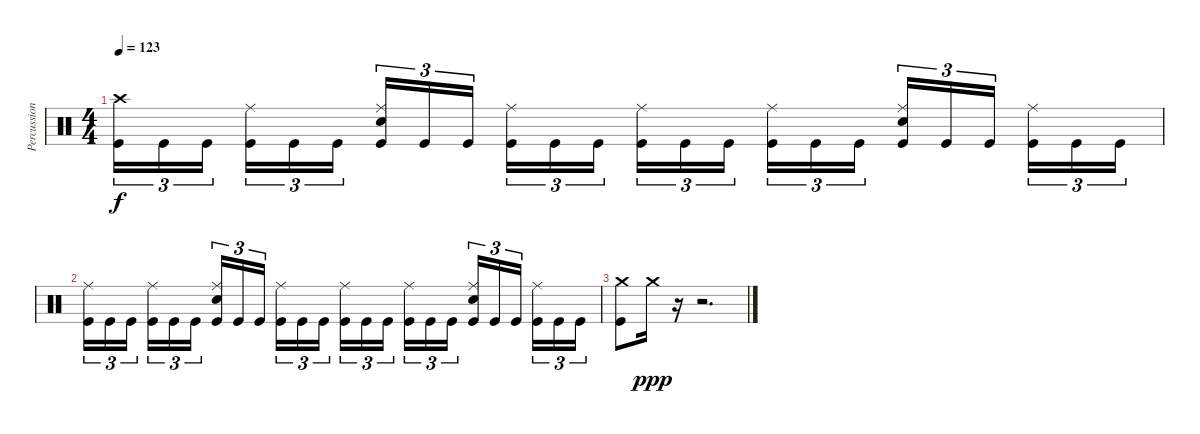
\track ("Percussions" "Percussion") {instrument percussion}
\staff {score}
\articulation defaults
\ts (4 4)
\tempo 123
\clef neutral
\ks c
("Crash high (hit)" "Kick (hit)").16{tu (3 2) dy f} "Kick (hit)".16{tu (3 2)} "Kick (hit)".16{tu (3 2)} ("Ride (middle)" "Kick (hit)").16{tu (3 2)} "Kick (hit)".16{tu (3 2)} "Kick (hit)".16{tu (3 2)} ("Ride (middle)" "Electric Snare (hit)" "Kick (hit)").16{tu (3 2)} "Kick (hit)".16{tu (3 2)} "Kick (hit)".16{tu (3 2)} ("Ride (middle)" "Kick (hit)").16{tu (3 2)} "Kick (hit)".16{tu (3 2)} "Kick (hit)".16{tu (3 2)} ("Ride (middle)" "Kick (hit)").16{tu (3 2)} "Kick (hit)".16{tu (3 2)} "Kick (hit)".16{tu (3 2)} ("Ride (middle)" "Kick (hit)").16{tu (3 2)} "Kick (hit)".16{tu (3 2)} "Kick (hit)".16{tu (3 2)} ("Ride (middle)" "Electric Snare (hit)" "Kick (hit)").16{tu (3 2)} "Kick (hit)".16{tu (3 2)} "Kick (hit)".16{tu (3 2)} ("Ride (middle)" "Kick (hit)").16{tu (3 2)} "Kick (hit)".16{tu (3 2)} "Kick (hit)".16{tu (3 2)} |
("Ride (middle)" "Kick (hit)").16{tu (3 2)} "Kick (hit)".16{tu (3 2)} "Kick (hit)".16{tu (3 2)} ("Ride (middle)" "Kick (hit)").16{tu (3 2)} "Kick (hit)".16{tu (3 2)} "Kick (hit)".16{tu (3 2)} ("Ride (middle)" "Electric Snare (hit)" "Kick (hit)").16{tu (3 2)} "Kick (hit)".16{tu (3 2)} "Kick (hit)".16{tu (3 2)} ("Ride (middle)" "Kick (hit)").16{tu (3 2)} "Kick (hit)".16{tu (3 2)} "Kick (hit)".16{tu (3 2)} ("Ride (middle)" "Kick (hit)").16{tu (3 2)} "Kick (hit)".16{tu (3 2)} "Kick (hit)".16{tu (3 2)} ("Ride (middle)" "Kick (hit)").16{tu (3 2)} "Kick (hit)".16{tu (3 2)} "Kick (hit)".16{tu (3 2)} ("Ride (middle)" "Electric Snare (hit)" "Kick (hit)").16{tu (3 2)} "Kick (hit)".16{tu (3 2)} "Kick (hit)".16{tu (3 2)} ("Ride (middle)" "Kick (hit)").16{tu (3 2)} "Kick (hit)".16{tu (3 2)} "Kick (hit)".16{tu (3 2)} |
("Crash medium (hit)" "Kick (hit)").8 "Crash medium (hit)".16{dy ppp} r.16 r.2{d}
